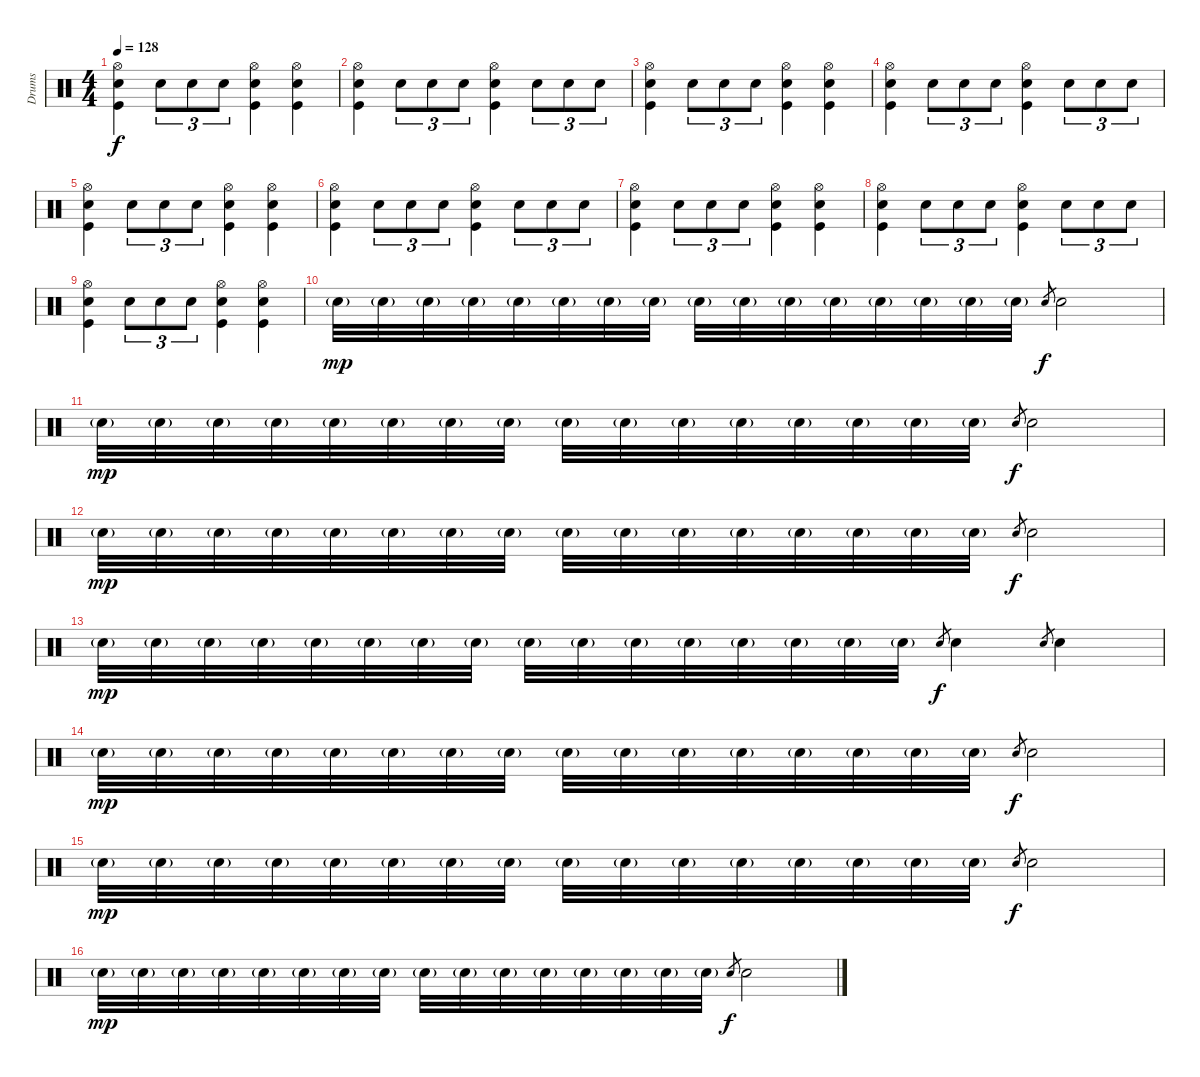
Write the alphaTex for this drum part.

\track ("Drums" "Drums") {instrument percussion}
\staff {score}
\articulation defaults
\ts (4 4)
\tempo 128
\clef neutral
\ks c
("Hi-Hat (open)" "Snare (hit) 2" "Kick (hit)").4{dy f} "Snare (hit) 2".8{tu (3 2)} "Snare (hit) 2".8{tu (3 2)} "Snare (hit) 2".8{tu (3 2)} ("Hi-Hat (open)" "Snare (hit) 2" "Kick (hit)").4 ("Hi-Hat (open)" "Snare (hit) 2" "Kick (hit)").4 |
("Hi-Hat (open)" "Snare (hit) 2" "Kick (hit)").4 "Snare (hit) 2".8{tu (3 2)} "Snare (hit) 2".8{tu (3 2)} "Snare (hit) 2".8{tu (3 2)} ("Hi-Hat (open)" "Snare (hit) 2" "Kick (hit)").4 "Snare (hit) 2".8{tu (3 2)} "Snare (hit) 2".8{tu (3 2)} "Snare (hit) 2".8{tu (3 2)} |
("Hi-Hat (open)" "Snare (hit) 2" "Kick (hit)").4 "Snare (hit) 2".8{tu (3 2)} "Snare (hit) 2".8{tu (3 2)} "Snare (hit) 2".8{tu (3 2)} ("Hi-Hat (open)" "Snare (hit) 2" "Kick (hit)").4 ("Hi-Hat (open)" "Snare (hit) 2" "Kick (hit)").4 |
("Hi-Hat (open)" "Snare (hit) 2" "Kick (hit)").4 "Snare (hit) 2".8{tu (3 2)} "Snare (hit) 2".8{tu (3 2)} "Snare (hit) 2".8{tu (3 2)} ("Hi-Hat (open)" "Snare (hit) 2" "Kick (hit)").4 "Snare (hit) 2".8{tu (3 2)} "Snare (hit) 2".8{tu (3 2)} "Snare (hit) 2".8{tu (3 2)} |
("Hi-Hat (open)" "Snare (hit) 2" "Kick (hit)").4 "Snare (hit) 2".8{tu (3 2)} "Snare (hit) 2".8{tu (3 2)} "Snare (hit) 2".8{tu (3 2)} ("Hi-Hat (open)" "Snare (hit) 2" "Kick (hit)").4 ("Hi-Hat (open)" "Snare (hit) 2" "Kick (hit)").4 |
("Hi-Hat (open)" "Snare (hit) 2" "Kick (hit)").4 "Snare (hit) 2".8{tu (3 2)} "Snare (hit) 2".8{tu (3 2)} "Snare (hit) 2".8{tu (3 2)} ("Hi-Hat (open)" "Snare (hit) 2" "Kick (hit)").4 "Snare (hit) 2".8{tu (3 2)} "Snare (hit) 2".8{tu (3 2)} "Snare (hit) 2".8{tu (3 2)} |
("Hi-Hat (open)" "Snare (hit) 2" "Kick (hit)").4 "Snare (hit) 2".8{tu (3 2)} "Snare (hit) 2".8{tu (3 2)} "Snare (hit) 2".8{tu (3 2)} ("Hi-Hat (open)" "Snare (hit) 2" "Kick (hit)").4 ("Hi-Hat (open)" "Snare (hit) 2" "Kick (hit)").4 |
("Hi-Hat (open)" "Snare (hit) 2" "Kick (hit)").4 "Snare (hit) 2".8{tu (3 2)} "Snare (hit) 2".8{tu (3 2)} "Snare (hit) 2".8{tu (3 2)} ("Hi-Hat (open)" "Snare (hit) 2" "Kick (hit)").4 "Snare (hit) 2".8{tu (3 2)} "Snare (hit) 2".8{tu (3 2)} "Snare (hit) 2".8{tu (3 2)} |
("Hi-Hat (open)" "Snare (hit) 2" "Kick (hit)").4 "Snare (hit) 2".8{tu (3 2)} "Snare (hit) 2".8{tu (3 2)} "Snare (hit) 2".8{tu (3 2)} ("Hi-Hat (open)" "Snare (hit) 2" "Kick (hit)").4 ("Hi-Hat (open)" "Snare (hit) 2" "Kick (hit)").4 |
"Snare (hit) 2"{g}.32{dy mp volume 10} "Snare (hit) 2"{g}.32 "Snare (hit) 2"{g}.32 "Snare (hit) 2"{g}.32 "Snare (hit) 2"{g}.32 "Snare (hit) 2"{g}.32 "Snare (hit) 2"{g}.32 "Snare (hit) 2"{g}.32 "Snare (hit) 2"{g}.32 "Snare (hit) 2"{g}.32 "Snare (hit) 2"{g}.32 "Snare (hit) 2"{g}.32 "Snare (hit) 2"{g}.32 "Snare (hit) 2"{g}.32 "Snare (hit) 2"{g}.32 "Snare (hit) 2"{g}.32 "Snare (hit) 2".8{gr dy f} "Snare (hit) 2".2 |
"Snare (hit) 2"{g}.32{dy mp} "Snare (hit) 2"{g}.32 "Snare (hit) 2"{g}.32 "Snare (hit) 2"{g}.32 "Snare (hit) 2"{g}.32 "Snare (hit) 2"{g}.32 "Snare (hit) 2"{g}.32 "Snare (hit) 2"{g}.32 "Snare (hit) 2"{g}.32 "Snare (hit) 2"{g}.32 "Snare (hit) 2"{g}.32 "Snare (hit) 2"{g}.32 "Snare (hit) 2"{g}.32 "Snare (hit) 2"{g}.32 "Snare (hit) 2"{g}.32 "Snare (hit) 2"{g}.32 "Snare (hit) 2".8{gr dy f} "Snare (hit) 2".2 |
"Snare (hit) 2"{g}.32{dy mp} "Snare (hit) 2"{g}.32 "Snare (hit) 2"{g}.32 "Snare (hit) 2"{g}.32 "Snare (hit) 2"{g}.32 "Snare (hit) 2"{g}.32 "Snare (hit) 2"{g}.32 "Snare (hit) 2"{g}.32 "Snare (hit) 2"{g}.32 "Snare (hit) 2"{g}.32 "Snare (hit) 2"{g}.32 "Snare (hit) 2"{g}.32 "Snare (hit) 2"{g}.32 "Snare (hit) 2"{g}.32 "Snare (hit) 2"{g}.32 "Snare (hit) 2"{g}.32 "Snare (hit) 2".8{gr dy f} "Snare (hit) 2".2 |
"Snare (hit) 2"{g}.32{dy mp} "Snare (hit) 2"{g}.32 "Snare (hit) 2"{g}.32 "Snare (hit) 2"{g}.32 "Snare (hit) 2"{g}.32 "Snare (hit) 2"{g}.32 "Snare (hit) 2"{g}.32 "Snare (hit) 2"{g}.32 "Snare (hit) 2"{g}.32 "Snare (hit) 2"{g}.32 "Snare (hit) 2"{g}.32 "Snare (hit) 2"{g}.32 "Snare (hit) 2"{g}.32 "Snare (hit) 2"{g}.32 "Snare (hit) 2"{g}.32 "Snare (hit) 2"{g}.32 "Snare (hit) 2".8{gr dy f} "Snare (hit) 2".4 "Snare (hit) 2".8{gr} "Snare (hit) 2".4 |
"Snare (hit) 2"{g}.32{dy mp} "Snare (hit) 2"{g}.32 "Snare (hit) 2"{g}.32 "Snare (hit) 2"{g}.32 "Snare (hit) 2"{g}.32 "Snare (hit) 2"{g}.32 "Snare (hit) 2"{g}.32 "Snare (hit) 2"{g}.32 "Snare (hit) 2"{g}.32 "Snare (hit) 2"{g}.32 "Snare (hit) 2"{g}.32 "Snare (hit) 2"{g}.32 "Snare (hit) 2"{g}.32 "Snare (hit) 2"{g}.32 "Snare (hit) 2"{g}.32 "Snare (hit) 2"{g}.32 "Snare (hit) 2".8{gr dy f} "Snare (hit) 2".2 |
"Snare (hit) 2"{g}.32{dy mp} "Snare (hit) 2"{g}.32 "Snare (hit) 2"{g}.32 "Snare (hit) 2"{g}.32 "Snare (hit) 2"{g}.32 "Snare (hit) 2"{g}.32 "Snare (hit) 2"{g}.32 "Snare (hit) 2"{g}.32 "Snare (hit) 2"{g}.32 "Snare (hit) 2"{g}.32 "Snare (hit) 2"{g}.32 "Snare (hit) 2"{g}.32 "Snare (hit) 2"{g}.32 "Snare (hit) 2"{g}.32 "Snare (hit) 2"{g}.32 "Snare (hit) 2"{g}.32 "Snare (hit) 2".8{gr dy f} "Snare (hit) 2".2 |
"Snare (hit) 2"{g}.32{dy mp} "Snare (hit) 2"{g}.32 "Snare (hit) 2"{g}.32 "Snare (hit) 2"{g}.32 "Snare (hit) 2"{g}.32 "Snare (hit) 2"{g}.32 "Snare (hit) 2"{g}.32 "Snare (hit) 2"{g}.32 "Snare (hit) 2"{g}.32 "Snare (hit) 2"{g}.32 "Snare (hit) 2"{g}.32 "Snare (hit) 2"{g}.32 "Snare (hit) 2"{g}.32 "Snare (hit) 2"{g}.32 "Snare (hit) 2"{g}.32 "Snare (hit) 2"{g}.32 "Snare (hit) 2".8{gr dy f} "Snare (hit) 2".2
